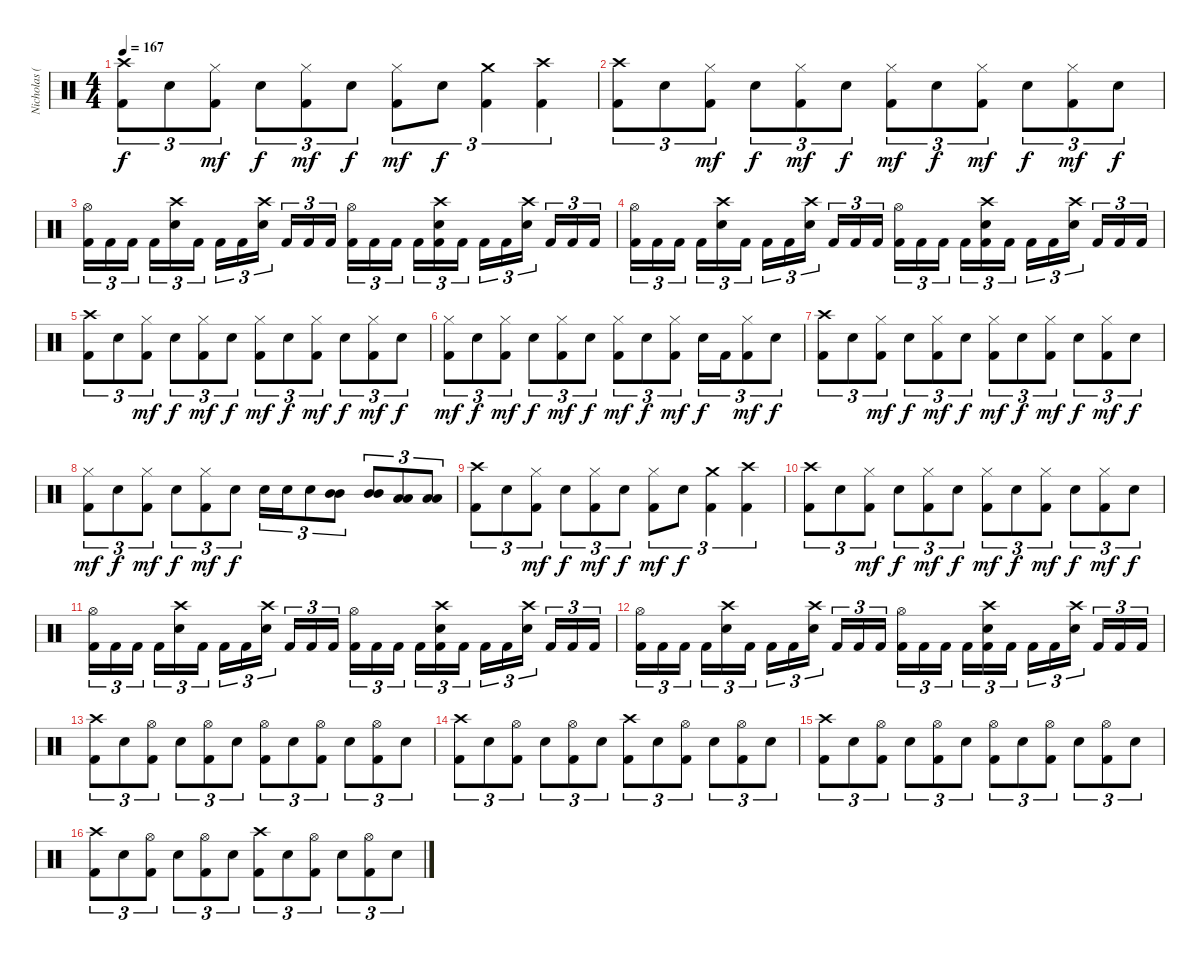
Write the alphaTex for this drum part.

\track ("Nicholas (Drums)" "Nicholas (") {instrument percussion}
\staff {score}
\articulation defaults
\ts (4 4)
\tempo 167
\clef neutral
\ks c
("Crash high (hit)" "Kick (hit) 2").8{tu (3 2) dy f} "Electric Snare (hit)".8{tu (3 2)} ("Hi-Hat (closed)" "Kick (hit) 2").8{tu (3 2) dy mf} "Electric Snare (hit)".8{tu (3 2) dy f} ("Hi-Hat (closed)" "Kick (hit) 2").8{tu (3 2) dy mf} "Electric Snare (hit)".8{tu (3 2) dy f} ("Hi-Hat (closed)" "Kick (hit) 2").8{tu (3 2) dy mf} "Electric Snare (hit)".8{tu (3 2) dy f} ("Crash medium (hit)" "Kick (hit) 2").4{tu (3 2)} ("Crash high (hit)" "Kick (hit) 2").4{tu (3 2)} |
("Crash high (hit)" "Kick (hit) 2").8{tu (3 2)} "Electric Snare (hit)".8{tu (3 2)} ("Hi-Hat (closed)" "Kick (hit) 2").8{tu (3 2) dy mf} "Electric Snare (hit)".8{tu (3 2) dy f} ("Hi-Hat (closed)" "Kick (hit) 2").8{tu (3 2) dy mf} "Electric Snare (hit)".8{tu (3 2) dy f} ("Hi-Hat (closed)" "Kick (hit) 2").8{tu (3 2) dy mf} "Electric Snare (hit)".8{tu (3 2) dy f} ("Hi-Hat (closed)" "Kick (hit) 2").8{tu (3 2) dy mf} "Electric Snare (hit)".8{tu (3 2) dy f} ("Hi-Hat (closed)" "Kick (hit) 2").8{tu (3 2) dy mf} "Electric Snare (hit)".8{tu (3 2) dy f} |
("Hi-Hat (open)" "Kick (hit) 2").16{tu (3 2)} "Kick (hit) 2".16{tu (3 2)} "Kick (hit) 2".16{tu (3 2)} "Kick (hit) 2".16{tu (3 2)} ("Crash high (hit)" "Electric Snare (hit)").16{tu (3 2)} "Kick (hit) 2".16{tu (3 2)} "Kick (hit) 2".16{tu (3 2)} "Kick (hit) 2".16{tu (3 2)} ("Crash high (hit)" "Electric Snare (hit)").16{tu (3 2)} "Kick (hit) 2".16{tu (3 2)} "Kick (hit) 2".16{tu (3 2)} "Kick (hit) 2".16{tu (3 2)} ("Hi-Hat (open)" "Kick (hit) 2").16{tu (3 2)} "Kick (hit) 2".16{tu (3 2)} "Kick (hit) 2".16{tu (3 2)} "Kick (hit) 2".16{tu (3 2)} ("Crash high (hit)" "Electric Snare (hit)" "Kick (hit) 2").16{tu (3 2)} "Kick (hit) 2".16{tu (3 2)} "Kick (hit) 2".16{tu (3 2)} "Kick (hit) 2".16{tu (3 2)} ("Crash high (hit)" "Electric Snare (hit)").16{tu (3 2)} "Kick (hit) 2".16{tu (3 2)} "Kick (hit) 2".16{tu (3 2)} "Kick (hit) 2".16{tu (3 2)} |
("Hi-Hat (open)" "Kick (hit) 2").16{tu (3 2)} "Kick (hit) 2".16{tu (3 2)} "Kick (hit) 2".16{tu (3 2)} "Kick (hit) 2".16{tu (3 2)} ("Crash high (hit)" "Electric Snare (hit)").16{tu (3 2)} "Kick (hit) 2".16{tu (3 2)} "Kick (hit) 2".16{tu (3 2)} "Kick (hit) 2".16{tu (3 2)} ("Crash high (hit)" "Electric Snare (hit)").16{tu (3 2)} "Kick (hit) 2".16{tu (3 2)} "Kick (hit) 2".16{tu (3 2)} "Kick (hit) 2".16{tu (3 2)} ("Hi-Hat (open)" "Kick (hit) 2").16{tu (3 2)} "Kick (hit) 2".16{tu (3 2)} "Kick (hit) 2".16{tu (3 2)} "Kick (hit) 2".16{tu (3 2)} ("Crash high (hit)" "Electric Snare (hit)" "Kick (hit) 2").16{tu (3 2)} "Kick (hit) 2".16{tu (3 2)} "Kick (hit) 2".16{tu (3 2)} "Kick (hit) 2".16{tu (3 2)} ("Crash high (hit)" "Electric Snare (hit)").16{tu (3 2)} "Kick (hit) 2".16{tu (3 2)} "Kick (hit) 2".16{tu (3 2)} "Kick (hit) 2".16{tu (3 2)} |
("Crash high (hit)" "Kick (hit) 2").8{tu (3 2)} "Electric Snare (hit)".8{tu (3 2)} ("Hi-Hat (closed)" "Kick (hit) 2").8{tu (3 2) dy mf} "Electric Snare (hit)".8{tu (3 2) dy f} ("Hi-Hat (closed)" "Kick (hit) 2").8{tu (3 2) dy mf} "Electric Snare (hit)".8{tu (3 2) dy f} ("Hi-Hat (closed)" "Kick (hit) 2").8{tu (3 2) dy mf} "Electric Snare (hit)".8{tu (3 2) dy f} ("Hi-Hat (closed)" "Kick (hit) 2").8{tu (3 2) dy mf} "Electric Snare (hit)".8{tu (3 2) dy f} ("Hi-Hat (closed)" "Kick (hit) 2").8{tu (3 2) dy mf} "Electric Snare (hit)".8{tu (3 2) dy f} |
("Hi-Hat (closed)" "Kick (hit) 2").8{tu (3 2) dy mf} "Electric Snare (hit)".8{tu (3 2) dy f} ("Hi-Hat (closed)" "Kick (hit) 2").8{tu (3 2) dy mf} "Electric Snare (hit)".8{tu (3 2) dy f} ("Hi-Hat (closed)" "Kick (hit) 2").8{tu (3 2) dy mf} "Electric Snare (hit)".8{tu (3 2) dy f} ("Hi-Hat (closed)" "Kick (hit) 2").8{tu (3 2) dy mf} "Electric Snare (hit)".8{tu (3 2) dy f} ("Hi-Hat (closed)" "Kick (hit) 2").8{tu (3 2) dy mf} "Electric Snare (hit)".16{tu (3 2) dy f} "Kick (hit) 2".16{tu (3 2)} ("Hi-Hat (closed)" "Kick (hit) 2").8{tu (3 2) dy mf} "Electric Snare (hit)".8{tu (3 2) dy f} |
("Crash high (hit)" "Kick (hit) 2").8{tu (3 2)} "Electric Snare (hit)".8{tu (3 2)} ("Hi-Hat (closed)" "Kick (hit) 2").8{tu (3 2) dy mf} "Electric Snare (hit)".8{tu (3 2) dy f} ("Hi-Hat (closed)" "Kick (hit) 2").8{tu (3 2) dy mf} "Electric Snare (hit)".8{tu (3 2) dy f} ("Hi-Hat (closed)" "Kick (hit) 2").8{tu (3 2) dy mf} "Electric Snare (hit)".8{tu (3 2) dy f} ("Hi-Hat (closed)" "Kick (hit) 2").8{tu (3 2) dy mf} "Electric Snare (hit)".8{tu (3 2) dy f} ("Hi-Hat (closed)" "Kick (hit) 2").8{tu (3 2) dy mf} "Electric Snare (hit)".8{tu (3 2) dy f} |
("Hi-Hat (closed)" "Kick (hit) 2").8{tu (3 2) dy mf} "Electric Snare (hit)".8{tu (3 2) dy f} ("Hi-Hat (closed)" "Kick (hit) 2").8{tu (3 2) dy mf} "Electric Snare (hit)".8{tu (3 2) dy f} ("Hi-Hat (closed)" "Kick (hit) 2").8{tu (3 2) dy mf} "Electric Snare (hit)".8{tu (3 2) dy f} "Electric Snare (hit)".16{tu (3 2)} "Electric Snare (hit)".16{tu (3 2)} "Electric Snare (hit)".8{tu (3 2)} ("Mid Tom (hit)" "Mid Tom (hit)").8{tu (3 2)} ("Mid Tom (hit)" "Mid Tom (hit)").8{tu (3 2)} ("Low Tom (hit)" "Low Tom (hit)").8{tu (3 2)} ("Low Tom (hit)" "Low Tom (hit)").8{tu (3 2)} |
("Crash high (hit)" "Kick (hit) 2").8{tu (3 2)} "Electric Snare (hit)".8{tu (3 2)} ("Hi-Hat (closed)" "Kick (hit) 2").8{tu (3 2) dy mf} "Electric Snare (hit)".8{tu (3 2) dy f} ("Hi-Hat (closed)" "Kick (hit) 2").8{tu (3 2) dy mf} "Electric Snare (hit)".8{tu (3 2) dy f} ("Hi-Hat (closed)" "Kick (hit) 2").8{tu (3 2) dy mf} "Electric Snare (hit)".8{tu (3 2) dy f} ("Crash medium (hit)" "Kick (hit) 2").4{tu (3 2)} ("Crash high (hit)" "Kick (hit) 2").4{tu (3 2)} |
("Crash high (hit)" "Kick (hit) 2").8{tu (3 2)} "Electric Snare (hit)".8{tu (3 2)} ("Hi-Hat (closed)" "Kick (hit) 2").8{tu (3 2) dy mf} "Electric Snare (hit)".8{tu (3 2) dy f} ("Hi-Hat (closed)" "Kick (hit) 2").8{tu (3 2) dy mf} "Electric Snare (hit)".8{tu (3 2) dy f} ("Hi-Hat (closed)" "Kick (hit) 2").8{tu (3 2) dy mf} "Electric Snare (hit)".8{tu (3 2) dy f} ("Hi-Hat (closed)" "Kick (hit) 2").8{tu (3 2) dy mf} "Electric Snare (hit)".8{tu (3 2) dy f} ("Hi-Hat (closed)" "Kick (hit) 2").8{tu (3 2) dy mf} "Electric Snare (hit)".8{tu (3 2) dy f} |
("Hi-Hat (open)" "Kick (hit) 2").16{tu (3 2)} "Kick (hit) 2".16{tu (3 2)} "Kick (hit) 2".16{tu (3 2)} "Kick (hit) 2".16{tu (3 2)} ("Crash high (hit)" "Electric Snare (hit)").16{tu (3 2)} "Kick (hit) 2".16{tu (3 2)} "Kick (hit) 2".16{tu (3 2)} "Kick (hit) 2".16{tu (3 2)} ("Crash high (hit)" "Electric Snare (hit)").16{tu (3 2)} "Kick (hit) 2".16{tu (3 2)} "Kick (hit) 2".16{tu (3 2)} "Kick (hit) 2".16{tu (3 2)} ("Hi-Hat (open)" "Kick (hit) 2").16{tu (3 2)} "Kick (hit) 2".16{tu (3 2)} "Kick (hit) 2".16{tu (3 2)} "Kick (hit) 2".16{tu (3 2)} ("Crash high (hit)" "Electric Snare (hit)" "Kick (hit) 2").16{tu (3 2)} "Kick (hit) 2".16{tu (3 2)} "Kick (hit) 2".16{tu (3 2)} "Kick (hit) 2".16{tu (3 2)} ("Crash high (hit)" "Electric Snare (hit)").16{tu (3 2)} "Kick (hit) 2".16{tu (3 2)} "Kick (hit) 2".16{tu (3 2)} "Kick (hit) 2".16{tu (3 2)} |
("Hi-Hat (open)" "Kick (hit) 2").16{tu (3 2)} "Kick (hit) 2".16{tu (3 2)} "Kick (hit) 2".16{tu (3 2)} "Kick (hit) 2".16{tu (3 2)} ("Crash high (hit)" "Electric Snare (hit)").16{tu (3 2)} "Kick (hit) 2".16{tu (3 2)} "Kick (hit) 2".16{tu (3 2)} "Kick (hit) 2".16{tu (3 2)} ("Crash high (hit)" "Electric Snare (hit)").16{tu (3 2)} "Kick (hit) 2".16{tu (3 2)} "Kick (hit) 2".16{tu (3 2)} "Kick (hit) 2".16{tu (3 2)} ("Hi-Hat (open)" "Kick (hit) 2").16{tu (3 2)} "Kick (hit) 2".16{tu (3 2)} "Kick (hit) 2".16{tu (3 2)} "Kick (hit) 2".16{tu (3 2)} ("Crash high (hit)" "Electric Snare (hit)" "Kick (hit) 2").16{tu (3 2)} "Kick (hit) 2".16{tu (3 2)} "Kick (hit) 2".16{tu (3 2)} "Kick (hit) 2".16{tu (3 2)} ("Crash high (hit)" "Electric Snare (hit)").16{tu (3 2)} "Kick (hit) 2".16{tu (3 2)} "Kick (hit) 2".16{tu (3 2)} "Kick (hit) 2".16{tu (3 2)} |
("Crash high (hit)" "Kick (hit) 2").8{tu (3 2)} "Electric Snare (hit)".8{tu (3 2)} ("Hi-Hat (open)" "Kick (hit) 2").8{tu (3 2)} "Electric Snare (hit)".8{tu (3 2)} ("Hi-Hat (open)" "Kick (hit) 2").8{tu (3 2)} "Electric Snare (hit)".8{tu (3 2)} ("Hi-Hat (open)" "Kick (hit) 2").8{tu (3 2)} "Electric Snare (hit)".8{tu (3 2)} ("Hi-Hat (open)" "Kick (hit) 2").8{tu (3 2)} "Electric Snare (hit)".8{tu (3 2)} ("Hi-Hat (open)" "Kick (hit) 2").8{tu (3 2)} "Electric Snare (hit)".8{tu (3 2)} |
("Crash high (hit)" "Kick (hit) 2").8{tu (3 2)} "Electric Snare (hit)".8{tu (3 2)} ("Hi-Hat (open)" "Kick (hit) 2").8{tu (3 2)} "Electric Snare (hit)".8{tu (3 2)} ("Hi-Hat (open)" "Kick (hit) 2").8{tu (3 2)} "Electric Snare (hit)".8{tu (3 2)} ("Crash high (hit)" "Kick (hit) 2").8{tu (3 2)} "Electric Snare (hit)".8{tu (3 2)} ("Hi-Hat (open)" "Kick (hit) 2").8{tu (3 2)} "Electric Snare (hit)".8{tu (3 2)} ("Hi-Hat (open)" "Kick (hit) 2").8{tu (3 2)} "Electric Snare (hit)".8{tu (3 2)} |
("Crash high (hit)" "Kick (hit) 2").8{tu (3 2)} "Electric Snare (hit)".8{tu (3 2)} ("Hi-Hat (open)" "Kick (hit) 2").8{tu (3 2)} "Electric Snare (hit)".8{tu (3 2)} ("Hi-Hat (open)" "Kick (hit) 2").8{tu (3 2)} "Electric Snare (hit)".8{tu (3 2)} ("Hi-Hat (open)" "Kick (hit) 2").8{tu (3 2)} "Electric Snare (hit)".8{tu (3 2)} ("Hi-Hat (open)" "Kick (hit) 2").8{tu (3 2)} "Electric Snare (hit)".8{tu (3 2)} ("Hi-Hat (open)" "Kick (hit) 2").8{tu (3 2)} "Electric Snare (hit)".8{tu (3 2)} |
("Crash high (hit)" "Kick (hit) 2").8{tu (3 2)} "Electric Snare (hit)".8{tu (3 2)} ("Hi-Hat (open)" "Kick (hit) 2").8{tu (3 2)} "Electric Snare (hit)".8{tu (3 2)} ("Hi-Hat (open)" "Kick (hit) 2").8{tu (3 2)} "Electric Snare (hit)".8{tu (3 2)} ("Crash high (hit)" "Kick (hit) 2").8{tu (3 2)} "Electric Snare (hit)".8{tu (3 2)} ("Hi-Hat (open)" "Kick (hit) 2").8{tu (3 2)} "Electric Snare (hit)".8{tu (3 2)} ("Hi-Hat (open)" "Kick (hit) 2").8{tu (3 2)} "Electric Snare (hit)".8{tu (3 2)}
